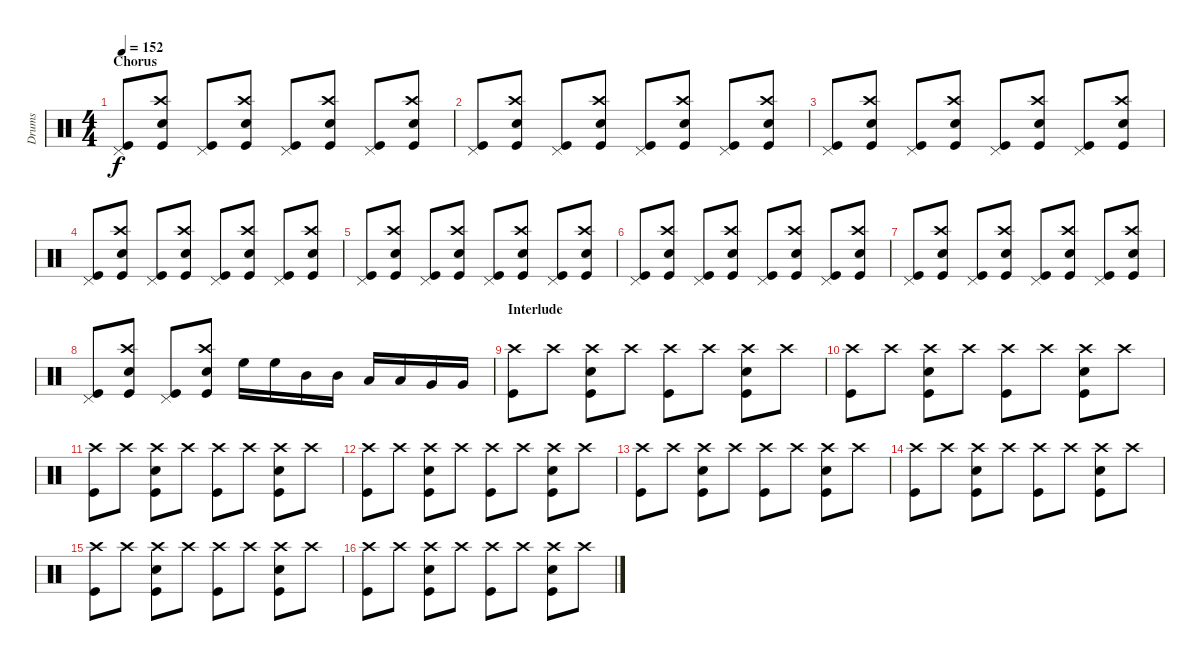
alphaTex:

\track ("Drums" "Drums") {instrument percussion}
\staff {score}
\articulation defaults
\ts (4 4)
\section ("" "Chorus")
\tempo 152
\clef neutral
\ks c
("Pedal Hi-Hat (hit)" "Kick (hit)").8{dy f} ("Crash high (hit)" "Electric Snare (hit)" "Kick (hit)").8 ("Pedal Hi-Hat (hit)" "Kick (hit)").8 ("Crash high (hit)" "Electric Snare (hit)" "Kick (hit)").8 ("Pedal Hi-Hat (hit)" "Kick (hit)").8 ("Crash high (hit)" "Electric Snare (hit)" "Kick (hit)").8 ("Pedal Hi-Hat (hit)" "Kick (hit)").8 ("Crash high (hit)" "Electric Snare (hit)" "Kick (hit)").8 |
("Pedal Hi-Hat (hit)" "Kick (hit)").8 ("Crash high (hit)" "Electric Snare (hit)" "Kick (hit)").8 ("Pedal Hi-Hat (hit)" "Kick (hit)").8 ("Crash high (hit)" "Electric Snare (hit)" "Kick (hit)").8 ("Pedal Hi-Hat (hit)" "Kick (hit)").8 ("Crash high (hit)" "Electric Snare (hit)" "Kick (hit)").8 ("Pedal Hi-Hat (hit)" "Kick (hit)").8 ("Crash high (hit)" "Electric Snare (hit)" "Kick (hit)").8 |
("Pedal Hi-Hat (hit)" "Kick (hit)").8 ("Crash high (hit)" "Electric Snare (hit)" "Kick (hit)").8 ("Pedal Hi-Hat (hit)" "Kick (hit)").8 ("Crash high (hit)" "Electric Snare (hit)" "Kick (hit)").8 ("Pedal Hi-Hat (hit)" "Kick (hit)").8 ("Crash high (hit)" "Electric Snare (hit)" "Kick (hit)").8 ("Pedal Hi-Hat (hit)" "Kick (hit)").8 ("Crash high (hit)" "Electric Snare (hit)" "Kick (hit)").8 |
("Pedal Hi-Hat (hit)" "Kick (hit)").8 ("Crash high (hit)" "Electric Snare (hit)" "Kick (hit)").8 ("Pedal Hi-Hat (hit)" "Kick (hit)").8 ("Crash high (hit)" "Electric Snare (hit)" "Kick (hit)").8 ("Pedal Hi-Hat (hit)" "Kick (hit)").8 ("Crash high (hit)" "Electric Snare (hit)" "Kick (hit)").8 ("Pedal Hi-Hat (hit)" "Kick (hit)").8 ("Crash high (hit)" "Electric Snare (hit)" "Kick (hit)").8 |
("Pedal Hi-Hat (hit)" "Kick (hit)").8 ("Crash high (hit)" "Electric Snare (hit)" "Kick (hit)").8 ("Pedal Hi-Hat (hit)" "Kick (hit)").8 ("Crash high (hit)" "Electric Snare (hit)" "Kick (hit)").8 ("Pedal Hi-Hat (hit)" "Kick (hit)").8 ("Crash high (hit)" "Electric Snare (hit)" "Kick (hit)").8 ("Pedal Hi-Hat (hit)" "Kick (hit)").8 ("Crash high (hit)" "Electric Snare (hit)" "Kick (hit)").8 |
("Pedal Hi-Hat (hit)" "Kick (hit)").8 ("Crash high (hit)" "Electric Snare (hit)" "Kick (hit)").8 ("Pedal Hi-Hat (hit)" "Kick (hit)").8 ("Crash high (hit)" "Electric Snare (hit)" "Kick (hit)").8 ("Pedal Hi-Hat (hit)" "Kick (hit)").8 ("Crash high (hit)" "Electric Snare (hit)" "Kick (hit)").8 ("Pedal Hi-Hat (hit)" "Kick (hit)").8 ("Crash high (hit)" "Electric Snare (hit)" "Kick (hit)").8 |
("Pedal Hi-Hat (hit)" "Kick (hit)").8 ("Crash high (hit)" "Electric Snare (hit)" "Kick (hit)").8 ("Pedal Hi-Hat (hit)" "Kick (hit)").8 ("Crash high (hit)" "Electric Snare (hit)" "Kick (hit)").8 ("Pedal Hi-Hat (hit)" "Kick (hit)").8 ("Crash high (hit)" "Electric Snare (hit)" "Kick (hit)").8 ("Pedal Hi-Hat (hit)" "Kick (hit)").8 ("Crash high (hit)" "Electric Snare (hit)" "Kick (hit)").8 |
("Pedal Hi-Hat (hit)" "Kick (hit)").8 ("Crash high (hit)" "Electric Snare (hit)" "Kick (hit)").8 ("Pedal Hi-Hat (hit)" "Kick (hit)").8 ("Crash high (hit)" "Electric Snare (hit)" "Kick (hit)").8 "High Floor Tom (hit)".16 "High Floor Tom (hit)".16 "Mid Tom (hit)".16 "Mid Tom (hit)".16 "Low Tom (hit)".16 "Low Tom (hit)".16 "Very Low Tom (hit)".16 "Very Low Tom (hit)".16 |
\section ("" "Interlude")
("Crash high (hit)" "Kick (hit)").8 "Crash high (hit)".8 ("Crash high (hit)" "Electric Snare (hit)" "Kick (hit)").8 "Crash high (hit)".8 ("Crash high (hit)" "Kick (hit)").8 "Crash high (hit)".8 ("Crash high (hit)" "Electric Snare (hit)" "Kick (hit)").8 "Crash high (hit)".8 |
("Crash high (hit)" "Kick (hit)").8 "Crash high (hit)".8 ("Crash high (hit)" "Electric Snare (hit)" "Kick (hit)").8 "Crash high (hit)".8 ("Crash high (hit)" "Kick (hit)").8 "Crash high (hit)".8 ("Crash high (hit)" "Electric Snare (hit)" "Kick (hit)").8 "Crash high (hit)".8 |
("Crash high (hit)" "Kick (hit)").8 "Crash high (hit)".8 ("Crash high (hit)" "Electric Snare (hit)" "Kick (hit)").8 "Crash high (hit)".8 ("Crash high (hit)" "Kick (hit)").8 "Crash high (hit)".8 ("Crash high (hit)" "Electric Snare (hit)" "Kick (hit)").8 "Crash high (hit)".8 |
("Crash high (hit)" "Kick (hit)").8 "Crash high (hit)".8 ("Crash high (hit)" "Electric Snare (hit)" "Kick (hit)").8 "Crash high (hit)".8 ("Crash high (hit)" "Kick (hit)").8 "Crash high (hit)".8 ("Crash high (hit)" "Electric Snare (hit)" "Kick (hit)").8 "Crash high (hit)".8 |
("Crash high (hit)" "Kick (hit)").8 "Crash high (hit)".8 ("Crash high (hit)" "Electric Snare (hit)" "Kick (hit)").8 "Crash high (hit)".8 ("Crash high (hit)" "Kick (hit)").8 "Crash high (hit)".8 ("Crash high (hit)" "Electric Snare (hit)" "Kick (hit)").8 "Crash high (hit)".8 |
("Crash high (hit)" "Kick (hit)").8 "Crash high (hit)".8 ("Crash high (hit)" "Electric Snare (hit)" "Kick (hit)").8 "Crash high (hit)".8 ("Crash high (hit)" "Kick (hit)").8 "Crash high (hit)".8 ("Crash high (hit)" "Electric Snare (hit)" "Kick (hit)").8 "Crash high (hit)".8 |
("Crash high (hit)" "Kick (hit)").8 "Crash high (hit)".8 ("Crash high (hit)" "Electric Snare (hit)" "Kick (hit)").8 "Crash high (hit)".8 ("Crash high (hit)" "Kick (hit)").8 "Crash high (hit)".8 ("Crash high (hit)" "Electric Snare (hit)" "Kick (hit)").8 "Crash high (hit)".8 |
("Crash high (hit)" "Kick (hit)").8 "Crash high (hit)".8 ("Crash high (hit)" "Electric Snare (hit)" "Kick (hit)").8 "Crash high (hit)".8 ("Crash high (hit)" "Kick (hit)").8 "Crash high (hit)".8 ("Crash high (hit)" "Electric Snare (hit)" "Kick (hit)").8 "Crash high (hit)".8
